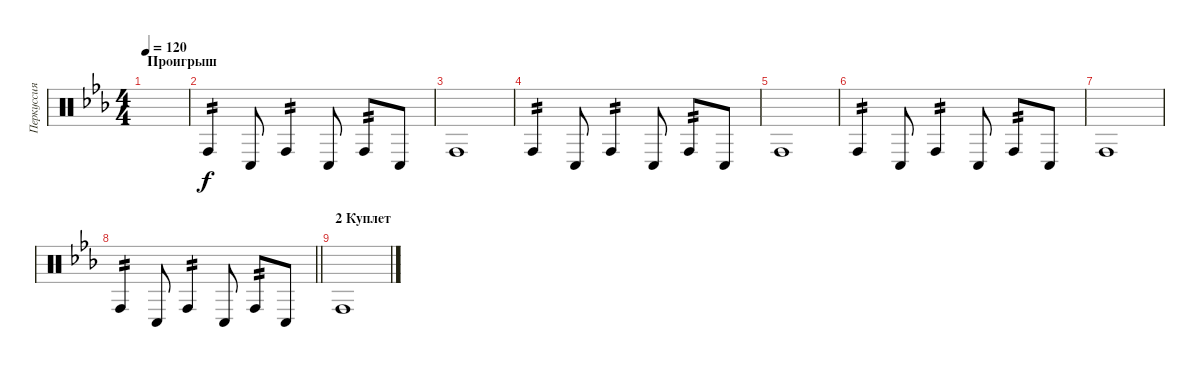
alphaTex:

\track ("Перкуссия" "Перкуссия") {instrument percussion}
\staff {score}
\articulation defaults
\ts (4 4)
\section ("" "Проигрыш")
\tempo 120
\clef neutral
\ks cminor
|
"Conga high (hit)".4{tp 2} "Conga low (hit)".8 "Conga high (hit)".4{tp 2} "Conga low (hit)".8 "Conga high (hit)".8{tp 2} "Conga low (hit)".8 |
"Conga high (hit)".1 |
"Conga high (hit)".4{tp 2} "Conga low (hit)".8 "Conga high (hit)".4{tp 2} "Conga low (hit)".8 "Conga high (hit)".8{tp 2} "Conga low (hit)".8 |
"Conga high (hit)".1 |
"Conga high (hit)".4{tp 2} "Conga low (hit)".8 "Conga high (hit)".4{tp 2} "Conga low (hit)".8 "Conga high (hit)".8{tp 2} "Conga low (hit)".8 |
"Conga high (hit)".1 |
\barLineRight lightlight "Conga high (hit)".4{tp 2} "Conga low (hit)".8 "Conga high (hit)".4{tp 2} "Conga low (hit)".8 "Conga high (hit)".8{tp 2} "Conga low (hit)".8
|
\section ("" "2 Куплет")
"Conga high (hit)".1
